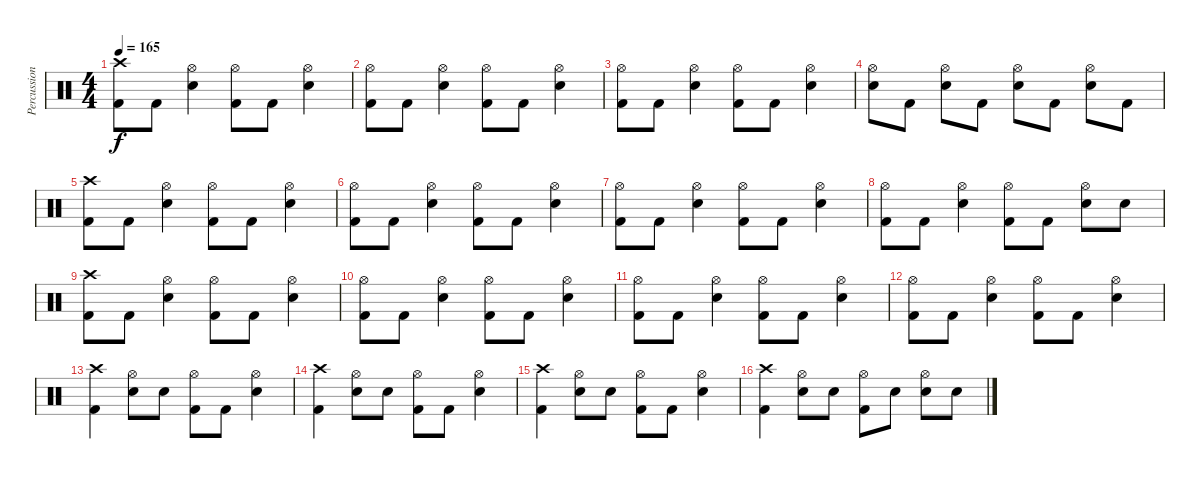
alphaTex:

\track ("Percussion" "Percussion") {instrument percussion}
\staff {score}
\articulation defaults
\ts (4 4)
\tempo 165
\clef neutral
\ks c
("Crash high (hit)" "Kick (hit) 2").8{dy f} "Kick (hit) 2".8 ("Hi-Hat (open)" "Snare (hit) 2").4 ("Hi-Hat (open)" "Kick (hit) 2").8 "Kick (hit) 2".8 ("Hi-Hat (open)" "Snare (hit) 2").4 |
("Hi-Hat (open)" "Kick (hit) 2").8 "Kick (hit) 2".8 ("Hi-Hat (open)" "Snare (hit) 2").4 ("Hi-Hat (open)" "Kick (hit) 2").8 "Kick (hit) 2".8 ("Hi-Hat (open)" "Snare (hit) 2").4 |
("Hi-Hat (open)" "Kick (hit) 2").8 "Kick (hit) 2".8 ("Hi-Hat (open)" "Snare (hit) 2").4 ("Hi-Hat (open)" "Kick (hit) 2").8 "Kick (hit) 2".8 ("Hi-Hat (open)" "Snare (hit) 2").4 |
("Hi-Hat (open)" "Snare (hit) 2").8 "Kick (hit) 2".8 ("Hi-Hat (open)" "Snare (hit) 2").8 "Kick (hit) 2".8 ("Hi-Hat (open)" "Snare (hit) 2").8 "Kick (hit) 2".8 ("Hi-Hat (open)" "Snare (hit) 2").8 "Kick (hit) 2".8 |
("Crash high (hit)" "Kick (hit) 2").8 "Kick (hit) 2".8 ("Hi-Hat (open)" "Snare (hit) 2").4 ("Hi-Hat (open)" "Kick (hit) 2").8 "Kick (hit) 2".8 ("Hi-Hat (open)" "Snare (hit) 2").4 |
("Hi-Hat (open)" "Kick (hit) 2").8 "Kick (hit) 2".8 ("Hi-Hat (open)" "Snare (hit) 2").4 ("Hi-Hat (open)" "Kick (hit) 2").8 "Kick (hit) 2".8 ("Hi-Hat (open)" "Snare (hit) 2").4 |
("Hi-Hat (open)" "Kick (hit) 2").8 "Kick (hit) 2".8 ("Hi-Hat (open)" "Snare (hit) 2").4 ("Hi-Hat (open)" "Kick (hit) 2").8 "Kick (hit) 2".8 ("Hi-Hat (open)" "Snare (hit) 2").4 |
("Hi-Hat (open)" "Kick (hit) 2").8 "Kick (hit) 2".8 ("Hi-Hat (open)" "Snare (hit) 2").4 ("Hi-Hat (open)" "Kick (hit) 2").8 "Kick (hit) 2".8 ("Hi-Hat (open)" "Snare (hit) 2").8 "Snare (hit) 2".8 |
("Crash high (hit)" "Kick (hit) 2").8 "Kick (hit) 2".8 ("Hi-Hat (open)" "Snare (hit) 2").4 ("Hi-Hat (open)" "Kick (hit) 2").8 "Kick (hit) 2".8 ("Hi-Hat (open)" "Snare (hit) 2").4 |
("Hi-Hat (open)" "Kick (hit) 2").8 "Kick (hit) 2".8 ("Hi-Hat (open)" "Snare (hit) 2").4 ("Hi-Hat (open)" "Kick (hit) 2").8 "Kick (hit) 2".8 ("Hi-Hat (open)" "Snare (hit) 2").4 |
("Hi-Hat (open)" "Kick (hit) 2").8 "Kick (hit) 2".8 ("Hi-Hat (open)" "Snare (hit) 2").4 ("Hi-Hat (open)" "Kick (hit) 2").8 "Kick (hit) 2".8 ("Hi-Hat (open)" "Snare (hit) 2").4 |
("Hi-Hat (open)" "Kick (hit) 2").8 "Kick (hit) 2".8 ("Hi-Hat (open)" "Snare (hit) 2").4 ("Hi-Hat (open)" "Kick (hit) 2").8 "Kick (hit) 2".8 ("Hi-Hat (open)" "Snare (hit) 2").4 |
("Crash high (hit)" "Kick (hit) 2").4 ("Hi-Hat (open)" "Snare (hit) 2").8 "Snare (hit) 2".8 ("Hi-Hat (open)" "Kick (hit) 2").8 "Kick (hit) 2".8 ("Hi-Hat (open)" "Snare (hit) 2").4 |
("Crash high (hit)" "Kick (hit) 2").4 ("Hi-Hat (open)" "Snare (hit) 2").8 "Snare (hit) 2".8 ("Hi-Hat (open)" "Kick (hit) 2").8 "Kick (hit) 2".8 ("Hi-Hat (open)" "Snare (hit) 2").4 |
("Crash high (hit)" "Kick (hit) 2").4 ("Hi-Hat (open)" "Snare (hit) 2").8 "Snare (hit) 2".8 ("Hi-Hat (open)" "Kick (hit) 2").8 "Kick (hit) 2".8 ("Hi-Hat (open)" "Snare (hit) 2").4 |
("Crash high (hit)" "Kick (hit) 2").4 ("Hi-Hat (open)" "Snare (hit) 2").8 "Snare (hit) 2".8 ("Hi-Hat (open)" "Kick (hit) 2").8 "Snare (hit) 2".8 ("Hi-Hat (open)" "Snare (hit) 2").8 "Snare (hit) 2".8
